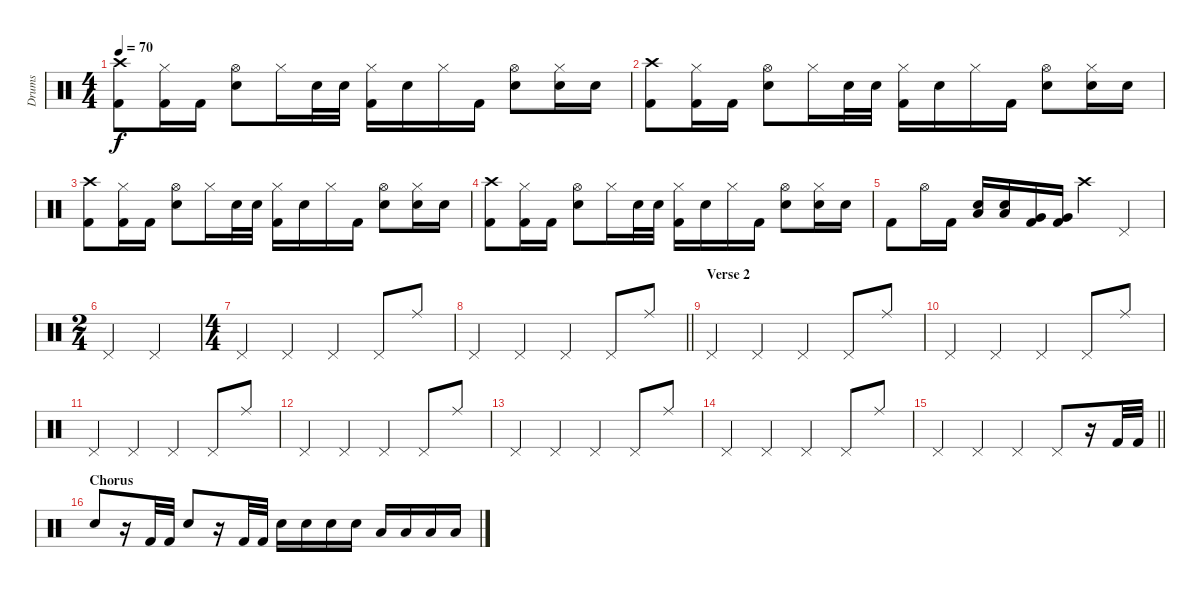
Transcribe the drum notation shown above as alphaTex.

\track ("Drums" "Drums") {instrument percussion bank 10}
\staff {score}
\articulation defaults
\ts (4 4)
\tempo 70
\clef neutral
\ks aminor
("Crash high (hit)" "Kick (hit) 2").8{dy f} ("Hi-Hat (closed)" "Kick (hit) 2").16 "Kick (hit) 2".16 ("Hi-Hat (open)" "Snare (hit) 2").8 "Hi-Hat (closed)".16 "Snare (hit) 2".32 "Snare (hit) 2".32 ("Hi-Hat (closed)" "Kick (hit) 2").16 "Snare (hit) 2".16 "Hi-Hat (closed)".16 "Kick (hit) 2".16 ("Hi-Hat (open)" "Snare (hit) 2").8 ("Hi-Hat (closed)" "Snare (hit) 2").16 "Snare (hit) 2".16 |
("Crash high (hit)" "Kick (hit) 2").8 ("Hi-Hat (closed)" "Kick (hit) 2").16 "Kick (hit) 2".16 ("Hi-Hat (open)" "Snare (hit) 2").8 "Hi-Hat (closed)".16 "Snare (hit) 2".32 "Snare (hit) 2".32 ("Hi-Hat (closed)" "Kick (hit) 2").16 "Snare (hit) 2".16 "Hi-Hat (closed)".16 "Kick (hit) 2".16 ("Hi-Hat (open)" "Snare (hit) 2").8 ("Hi-Hat (closed)" "Snare (hit) 2").16 "Snare (hit) 2".16 |
("Crash high (hit)" "Kick (hit) 2").8 ("Hi-Hat (closed)" "Kick (hit) 2").16 "Kick (hit) 2".16 ("Hi-Hat (open)" "Snare (hit) 2").8 "Hi-Hat (closed)".16 "Snare (hit) 2".32 "Snare (hit) 2".32 ("Hi-Hat (closed)" "Kick (hit) 2").16 "Snare (hit) 2".16 "Hi-Hat (closed)".16 "Kick (hit) 2".16 ("Hi-Hat (open)" "Snare (hit) 2").8 ("Hi-Hat (closed)" "Snare (hit) 2").16 "Snare (hit) 2".16 |
("Crash high (hit)" "Kick (hit) 2").8 ("Hi-Hat (closed)" "Kick (hit) 2").16 "Kick (hit) 2".16 ("Hi-Hat (open)" "Snare (hit) 2").8 "Hi-Hat (closed)".16 "Snare (hit) 2".32 "Snare (hit) 2".32 ("Hi-Hat (closed)" "Kick (hit) 2").16 "Snare (hit) 2".16 "Hi-Hat (closed)".16 "Kick (hit) 2".16 ("Hi-Hat (open)" "Snare (hit) 2").8 ("Hi-Hat (closed)" "Snare (hit) 2").16 "Snare (hit) 2".16 |
"Kick (hit) 2".8 "Hi-Hat (open)".16 "Kick (hit) 2".16 ("Snare (hit) 2" "Low Tom (hit)").16 ("Snare (hit) 2" "Low Tom (hit)").16 ("Very Low Tom (hit)" "Kick (hit) 2").16 ("Very Low Tom (hit)" "Kick (hit) 2").16 "Crash high (hit)".4 "Pedal Hi-Hat (hit)".4 |
\ts (2 4)
\ks c "Pedal Hi-Hat (hit)".4 "Pedal Hi-Hat (hit)".4
|
\ts (4 4)
\ks aminor "Pedal Hi-Hat (hit)".4 "Pedal Hi-Hat (hit)".4 "Pedal Hi-Hat (hit)".4 "Pedal Hi-Hat (hit)".8 "Ride (middle)".8
|
\barLineRight lightlight "Pedal Hi-Hat (hit)".4 "Pedal Hi-Hat (hit)".4 "Pedal Hi-Hat (hit)".4 "Pedal Hi-Hat (hit)".8 "Ride (middle)".8
|
\section ("" "Verse 2")
"Pedal Hi-Hat (hit)".4 "Pedal Hi-Hat (hit)".4 "Pedal Hi-Hat (hit)".4 "Pedal Hi-Hat (hit)".8 "Ride (middle)".8 |
"Pedal Hi-Hat (hit)".4 "Pedal Hi-Hat (hit)".4 "Pedal Hi-Hat (hit)".4 "Pedal Hi-Hat (hit)".8 "Ride (middle)".8 |
"Pedal Hi-Hat (hit)".4 "Pedal Hi-Hat (hit)".4 "Pedal Hi-Hat (hit)".4 "Pedal Hi-Hat (hit)".8 "Ride (middle)".8 |
"Pedal Hi-Hat (hit)".4 "Pedal Hi-Hat (hit)".4 "Pedal Hi-Hat (hit)".4 "Pedal Hi-Hat (hit)".8 "Ride (middle)".8 |
"Pedal Hi-Hat (hit)".4 "Pedal Hi-Hat (hit)".4 "Pedal Hi-Hat (hit)".4 "Pedal Hi-Hat (hit)".8 "Ride (middle)".8 |
"Pedal Hi-Hat (hit)".4 "Pedal Hi-Hat (hit)".4 "Pedal Hi-Hat (hit)".4 "Pedal Hi-Hat (hit)".8 "Ride (middle)".8 |
\barLineRight lightlight "Pedal Hi-Hat (hit)".4 "Pedal Hi-Hat (hit)".4 "Pedal Hi-Hat (hit)".4 "Pedal Hi-Hat (hit)".8
r.16 "Kick (hit) 2".32 "Kick (hit) 2".32 |
\section ("" "Chorus")
"Snare (hit) 2".8 r.16 "Kick (hit) 2".32 "Kick (hit) 2".32 "Snare (hit) 2".8 r.16 "Kick (hit) 2".32 "Kick (hit) 2".32 "Snare (hit) 2".16 "Snare (hit) 2".16 "Snare (hit) 2".16 "Snare (hit) 2".16 "Low Tom (hit)".16 "Low Tom (hit)".16 "Low Tom (hit)".16 "Low Tom (hit)".16
